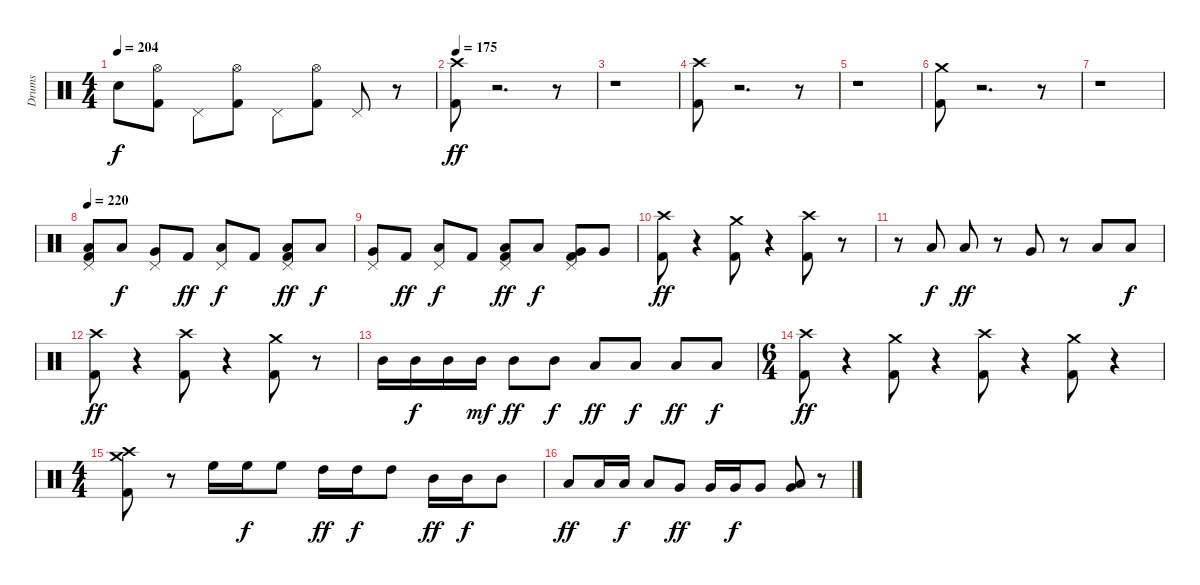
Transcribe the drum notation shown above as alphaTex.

\track ("Drums" "Drums") {instrument percussion}
\staff {score}
\articulation defaults
\ts (4 4)
\tempo 204
\clef neutral
\ks c "Electric Snare (hit)".8{dy f}
("Kick (hit) 2" "Hi-Hat (open)").8 "Pedal Hi-Hat (hit)".8 ("Kick (hit) 2" "Hi-Hat (open)").8 "Pedal Hi-Hat (hit)".8 ("Kick (hit) 2" "Hi-Hat (open)").8 "Pedal Hi-Hat (hit)".8 r.8 |
\tempo 175
("Kick (hit) 2" "Crash high (hit)").8{dy ff} r.2{d} r.8 |
r.1 |
("Kick (hit) 2" "Crash high (hit)").8 r.2{d} r.8 |
r.1 |
("Kick (hit) 2" "Crash medium (hit)").8 r.2{d} r.8 |
r.1 |
\tempo 220
("Kick (hit) 2" "Low Tom (hit)" "Pedal Hi-Hat (hit)").8 "Low Tom (hit)".8{dy f} ("Very Low Tom (hit)" "Pedal Hi-Hat (hit)").8 "Kick (hit) 2".8{dy ff} ("Low Floor Tom (hit)" "Pedal Hi-Hat (hit)").8{dy f} "Kick (hit) 2".8 ("Kick (hit) 2" "Low Tom (hit)" "Pedal Hi-Hat (hit)").8{dy ff} "Low Tom (hit)".8{dy f} |
("Very Low Tom (hit)" "Pedal Hi-Hat (hit)").8 "Kick (hit) 2".8{dy ff} ("Low Floor Tom (hit)" "Pedal Hi-Hat (hit)").8{dy f} "Kick (hit) 2".8 ("Kick (hit) 2" "Low Tom (hit)" "Pedal Hi-Hat (hit)").8{dy ff} "Low Tom (hit)".8{dy f} ("Kick (hit) 2" "Very Low Tom (hit)" "Pedal Hi-Hat (hit)").8 "Very Low Tom (hit)".8 |
("Kick (hit) 2" "Crash high (hit)").8{dy ff} r.4 ("Kick (hit) 2" "Crash medium (hit)").8 r.4 ("Kick (hit) 2" "Crash high (hit)").8 r.8 |
r.8 "Low Tom (hit)".8{dy f} "Low Tom (hit)".8{dy ff} r.8 "Very Low Tom (hit)".8 r.8 "Low Floor Tom (hit)".8 "Low Floor Tom (hit)".8{dy f} |
("Kick (hit) 2" "Crash high (hit)").8{dy ff} r.4 ("Kick (hit) 2" "Crash high (hit)").8 r.4 ("Kick (hit) 2" "Crash medium (hit)").8 r.8 |
"Mid Tom (hit)".16 "Mid Tom (hit)".16{dy f} "Mid Tom (hit)".16 "Mid Tom (hit)".16{dy mf} "Mid Tom (hit)".8{dy ff} "Mid Tom (hit)".8{dy f} "Low Tom (hit)".8{dy ff} "Low Tom (hit)".8{dy f} "Low Floor Tom (hit)".8{dy ff} "Low Floor Tom (hit)".8{dy f} |
\ts (6 4)
("Kick (hit) 2" "Crash high (hit)").8{dy ff} r.4 ("Kick (hit) 2" "Crash medium (hit)").8 r.4 ("Kick (hit) 2" "Crash high (hit)").8 r.4 ("Kick (hit) 2" "Crash medium (hit)").8 r.4 |
\ts (4 4)
("Kick (hit) 2" "Crash high (hit)" "Crash medium (hit)").8 r.8 "High Floor Tom (hit)".16 "High Floor Tom (hit)".16{dy f} "High Floor Tom (hit)".8 "High Tom (hit)".16{dy ff} "High Tom (hit)".16{dy f} "High Tom (hit)".8 "Mid Tom (hit)".16{dy ff} "Mid Tom (hit)".16{dy f} "Mid Tom (hit)".8 |
"Low Tom (hit)".8{dy ff} "Low Tom (hit)".16 "Low Tom (hit)".16{dy f} "Low Tom (hit)".8 "Very Low Tom (hit)".8{dy ff} "Very Low Tom (hit)".16 "Very Low Tom (hit)".16{dy f} "Very Low Tom (hit)".8 ("Low Floor Tom (hit)" "Very Low Tom (hit)").8 r.8
